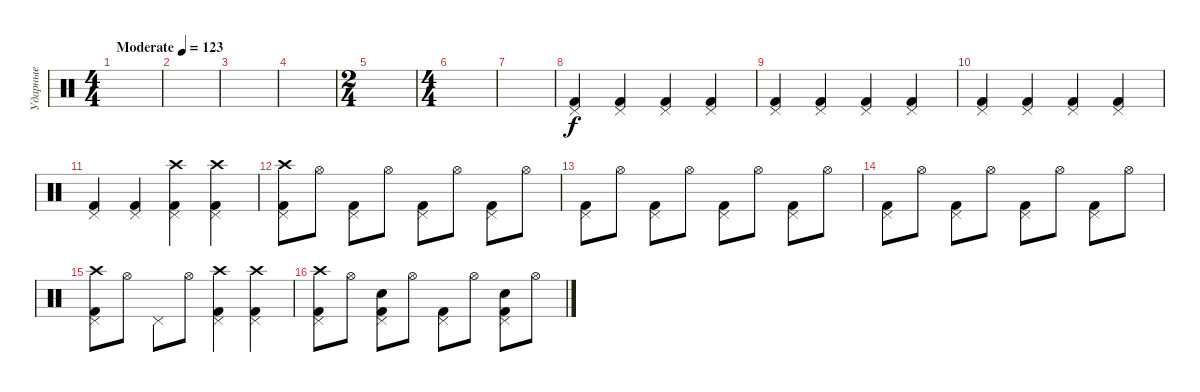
\track ("Ударные" "Ударные") {instrument percussion}
\staff {score}
\articulation defaults
\ts (4 4)
\tempo (123 "Moderate")
\clef neutral
\ks c
|
|
|
|
\ts (2 4)
|
\ts (4 4)
|
|
("Kick (hit) 2" "Pedal Hi-Hat (hit)").4 ("Kick (hit) 2" "Pedal Hi-Hat (hit)").4 ("Kick (hit) 2" "Pedal Hi-Hat (hit)").4 ("Kick (hit) 2" "Pedal Hi-Hat (hit)").4 |
("Kick (hit) 2" "Pedal Hi-Hat (hit)").4 ("Kick (hit) 2" "Pedal Hi-Hat (hit)").4 ("Kick (hit) 2" "Pedal Hi-Hat (hit)").4 ("Kick (hit) 2" "Pedal Hi-Hat (hit)").4 |
("Kick (hit) 2" "Pedal Hi-Hat (hit)").4 ("Kick (hit) 2" "Pedal Hi-Hat (hit)").4 ("Kick (hit) 2" "Pedal Hi-Hat (hit)").4 ("Kick (hit) 2" "Pedal Hi-Hat (hit)").4 |
("Kick (hit) 2" "Pedal Hi-Hat (hit)").4 ("Kick (hit) 2" "Pedal Hi-Hat (hit)").4 ("Kick (hit) 2" "Pedal Hi-Hat (hit)" "Crash high (hit)").4 ("Kick (hit) 2" "Pedal Hi-Hat (hit)" "Crash high (hit)").4 |
("Kick (hit) 2" "Pedal Hi-Hat (hit)" "Crash high (hit)").8 "Hi-Hat (open)".8 ("Kick (hit) 2" "Pedal Hi-Hat (hit)").8 "Hi-Hat (open)".8 ("Kick (hit) 2" "Pedal Hi-Hat (hit)").8 "Hi-Hat (open)".8 ("Kick (hit) 2" "Pedal Hi-Hat (hit)").8 "Hi-Hat (open)".8 |
("Kick (hit) 2" "Pedal Hi-Hat (hit)").8 "Hi-Hat (open)".8 ("Kick (hit) 2" "Pedal Hi-Hat (hit)").8 "Hi-Hat (open)".8 ("Kick (hit) 2" "Pedal Hi-Hat (hit)").8 "Hi-Hat (open)".8 ("Kick (hit) 2" "Pedal Hi-Hat (hit)").8 "Hi-Hat (open)".8 |
("Kick (hit) 2" "Pedal Hi-Hat (hit)").8 "Hi-Hat (open)".8 ("Kick (hit) 2" "Pedal Hi-Hat (hit)").8 "Hi-Hat (open)".8 ("Kick (hit) 2" "Pedal Hi-Hat (hit)").8 "Hi-Hat (open)".8 ("Kick (hit) 2" "Pedal Hi-Hat (hit)").8 "Hi-Hat (open)".8 |
("Kick (hit) 2" "Pedal Hi-Hat (hit)" "Crash high (hit)").8 "Hi-Hat (open)".8 "Pedal Hi-Hat (hit)".8 "Hi-Hat (open)".8 ("Kick (hit) 2" "Pedal Hi-Hat (hit)" "Crash high (hit)").4 ("Kick (hit) 2" "Pedal Hi-Hat (hit)" "Crash high (hit)").4 |
("Kick (hit) 2" "Pedal Hi-Hat (hit)" "Crash high (hit)").8 "Hi-Hat (open)".8 ("Kick (hit) 2" "Pedal Hi-Hat (hit)" "Hand Clap (hit)").8 "Hi-Hat (open)".8 ("Kick (hit) 2" "Pedal Hi-Hat (hit)").8 "Hi-Hat (open)".8 ("Kick (hit) 2" "Pedal Hi-Hat (hit)" "Hand Clap (hit)").8 "Hi-Hat (open)".8
